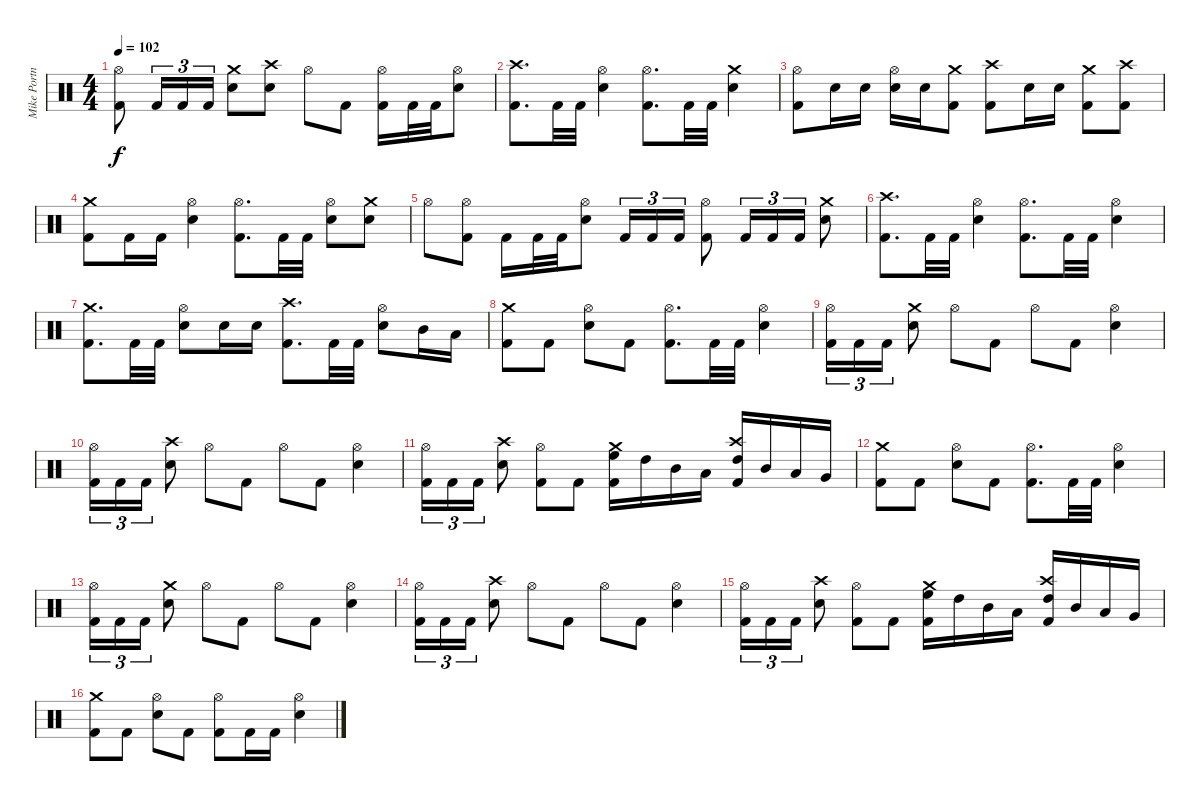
\track ("Mike Portnoy Drum " "Mike Portn") {instrument percussion}
\staff {score}
\articulation defaults
\ts (4 4)
\tempo 102
\clef neutral
\ks c
("Hi-Hat (open)" "Kick (hit) 2").8{dy f} "Kick (hit) 2".16{tu (3 2)} "Kick (hit) 2".16{tu (3 2)} "Kick (hit) 2".16{tu (3 2)} ("Crash medium (hit)" "Electric Snare (hit)").8 ("Crash high (hit)" "Electric Snare (hit)").8 "Hi-Hat (open)".8 "Kick (hit) 2".8 ("Hi-Hat (open)" "Kick (hit) 2").16 "Kick (hit) 2".32 "Kick (hit) 2".32 ("Hi-Hat (open)" "Electric Snare (hit)").8 |
("Crash high (hit)" "Kick (hit) 2").8{d} "Kick (hit) 2".32 "Kick (hit) 2".32 ("Hi-Hat (open)" "Electric Snare (hit)").4 ("Hi-Hat (open)" "Kick (hit) 2").8{d} "Kick (hit) 2".32 "Kick (hit) 2".32 ("Crash medium (hit)" "Electric Snare (hit)").4 |
("Hi-Hat (open)" "Kick (hit) 2").8 "Electric Snare (hit)".16 "Electric Snare (hit)".16 ("Hi-Hat (open)" "Electric Snare (hit)").16 "Electric Snare (hit)".16 ("Crash medium (hit)" "Kick (hit) 2").8 ("Crash high (hit)" "Kick (hit) 2").8 "Electric Snare (hit)".16 "Electric Snare (hit)".16 ("Crash medium (hit)" "Kick (hit) 2").8 ("Crash high (hit)" "Kick (hit) 2").8 |
("Crash medium (hit)" "Kick (hit) 2").8 "Kick (hit) 2".16 "Kick (hit) 2".16 ("Hi-Hat (open)" "Electric Snare (hit)").4 ("Hi-Hat (open)" "Kick (hit) 2").8{d} "Kick (hit) 2".32 "Kick (hit) 2".32 ("Hi-Hat (open)" "Electric Snare (hit)").8 ("Crash medium (hit)" "Electric Snare (hit)").8 |
"Hi-Hat (open)".8 ("Hi-Hat (open)" "Kick (hit) 2").8 "Kick (hit) 2".16 "Kick (hit) 2".32 "Kick (hit) 2".32 ("Hi-Hat (open)" "Electric Snare (hit)").8 "Kick (hit) 2".16{tu (3 2)} "Kick (hit) 2".16{tu (3 2)} "Kick (hit) 2".16{tu (3 2)} ("Hi-Hat (open)" "Kick (hit) 2").8 "Kick (hit) 2".16{tu (3 2)} "Kick (hit) 2".16{tu (3 2)} "Kick (hit) 2".16{tu (3 2)} ("Crash medium (hit)" "Electric Snare (hit)").8 |
("Crash high (hit)" "Kick (hit) 2").8{d} "Kick (hit) 2".32 "Kick (hit) 2".32 ("Hi-Hat (open)" "Electric Snare (hit)").4 ("Hi-Hat (open)" "Kick (hit) 2").8{d} "Kick (hit) 2".32 "Kick (hit) 2".32 ("Hi-Hat (open)" "Electric Snare (hit)").4 |
("Crash medium (hit)" "Kick (hit) 2").8{d} "Kick (hit) 2".32 "Kick (hit) 2".32 ("Hi-Hat (open)" "Electric Snare (hit)").8 "Electric Snare (hit)".16 "Electric Snare (hit)".16 ("Crash high (hit)" "Kick (hit) 2").8{d} "Kick (hit) 2".32 "Kick (hit) 2".32 ("Hi-Hat (open)" "Electric Snare (hit)").8 "Mid Tom (hit)".16 "Low Tom (hit)".16 |
("Crash medium (hit)" "Kick (hit) 2").8 "Kick (hit) 2".8 ("Hi-Hat (open)" "Electric Snare (hit)").8 "Kick (hit) 2".8 ("Hi-Hat (open)" "Kick (hit) 2").8{d} "Kick (hit) 2".32 "Kick (hit) 2".32 ("Hi-Hat (open)" "Electric Snare (hit)").4 |
("Hi-Hat (open)" "Kick (hit) 2").16{tu (3 2)} "Kick (hit) 2".16{tu (3 2)} "Kick (hit) 2".16{tu (3 2)} ("Crash medium (hit)" "Electric Snare (hit)").8 "Hi-Hat (open)".8 "Kick (hit) 2".8 "Hi-Hat (open)".8 "Kick (hit) 2".8 ("Hi-Hat (open)" "Electric Snare (hit)").4 |
("Hi-Hat (open)" "Kick (hit) 2").16{tu (3 2)} "Kick (hit) 2".16{tu (3 2)} "Kick (hit) 2".16{tu (3 2)} ("Crash high (hit)" "Electric Snare (hit)").8 "Hi-Hat (open)".8 "Kick (hit) 2".8 "Hi-Hat (open)".8 "Kick (hit) 2".8 ("Hi-Hat (open)" "Electric Snare (hit)").4 |
("Hi-Hat (open)" "Kick (hit) 2").16{tu (3 2)} "Kick (hit) 2".16{tu (3 2)} "Kick (hit) 2".16{tu (3 2)} ("Crash high (hit)" "Electric Snare (hit)").8 ("Hi-Hat (open)" "Kick (hit) 2").8 "Kick (hit) 2".8 ("Crash medium (hit)" "High Floor Tom (hit)" "Kick (hit) 2").16 "High Tom (hit)".16 "Mid Tom (hit)".16 "Low Tom (hit)".16 ("Crash high (hit)" "High Tom (hit)" "Kick (hit) 2").16 "Mid Tom (hit)".16 "Low Tom (hit)".16 "Very Low Tom (hit)".16 |
("Crash medium (hit)" "Kick (hit) 2").8 "Kick (hit) 2".8 ("Hi-Hat (open)" "Electric Snare (hit)").8 "Kick (hit) 2".8 ("Hi-Hat (open)" "Kick (hit) 2").8{d} "Kick (hit) 2".32 "Kick (hit) 2".32 ("Hi-Hat (open)" "Electric Snare (hit)").4 |
("Hi-Hat (open)" "Kick (hit) 2").16{tu (3 2)} "Kick (hit) 2".16{tu (3 2)} "Kick (hit) 2".16{tu (3 2)} ("Crash medium (hit)" "Electric Snare (hit)").8 "Hi-Hat (open)".8 "Kick (hit) 2".8 "Hi-Hat (open)".8 "Kick (hit) 2".8 ("Hi-Hat (open)" "Electric Snare (hit)").4 |
("Hi-Hat (open)" "Kick (hit) 2").16{tu (3 2)} "Kick (hit) 2".16{tu (3 2)} "Kick (hit) 2".16{tu (3 2)} ("Crash high (hit)" "Electric Snare (hit)").8 "Hi-Hat (open)".8 "Kick (hit) 2".8 "Hi-Hat (open)".8 "Kick (hit) 2".8 ("Hi-Hat (open)" "Electric Snare (hit)").4 |
("Hi-Hat (open)" "Kick (hit) 2").16{tu (3 2)} "Kick (hit) 2".16{tu (3 2)} "Kick (hit) 2".16{tu (3 2)} ("Crash high (hit)" "Electric Snare (hit)").8 ("Hi-Hat (open)" "Kick (hit) 2").8 "Kick (hit) 2".8 ("Crash medium (hit)" "High Floor Tom (hit)" "Kick (hit) 2").16 "High Tom (hit)".16 "Mid Tom (hit)".16 "Low Tom (hit)".16 ("Crash high (hit)" "High Tom (hit)" "Kick (hit) 2").16 "Mid Tom (hit)".16 "Low Tom (hit)".16 "Very Low Tom (hit)".16 |
("Crash medium (hit)" "Kick (hit) 2").8 "Kick (hit) 2".8 ("Hi-Hat (open)" "Electric Snare (hit)").8 "Kick (hit) 2".8 ("Hi-Hat (open)" "Kick (hit) 2").8 "Kick (hit) 2".16 "Kick (hit) 2".16 ("Hi-Hat (open)" "Electric Snare (hit)").4
